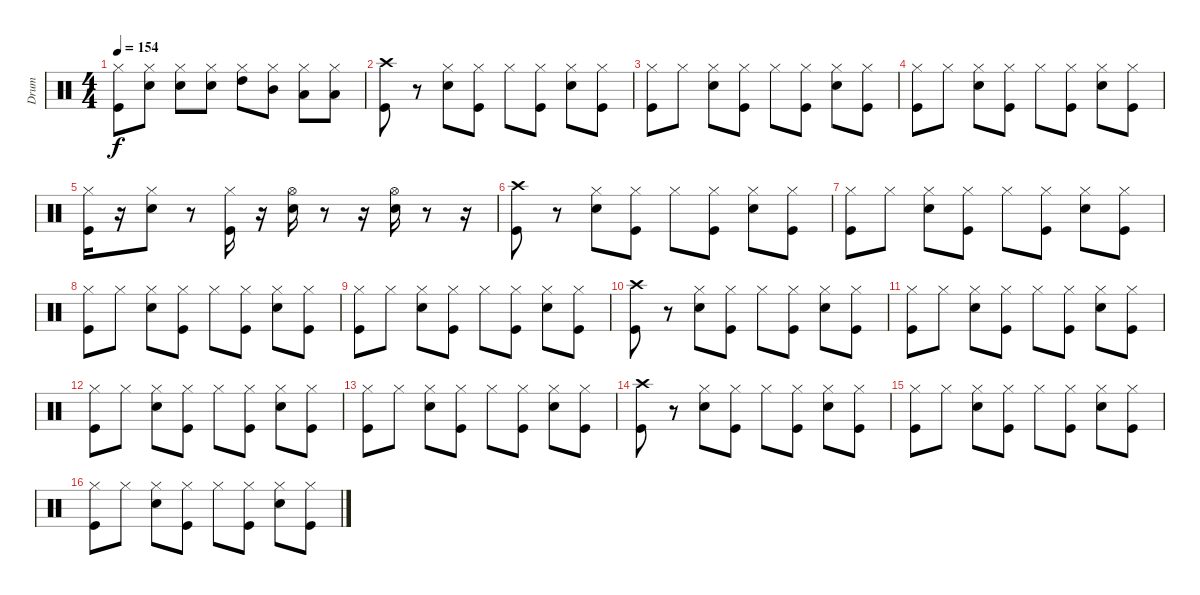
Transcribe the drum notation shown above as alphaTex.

\track ("Drum" "Drum") {instrument percussion}
\staff {score}
\articulation defaults
\ts (4 4)
\tempo 154
\clef neutral
\ks c
("Kick (hit)" "Hi-Hat (closed)").8{dy f} ("Snare (hit) 2" "Hi-Hat (closed)").8 ("Snare (hit) 2" "Hi-Hat (closed)").8 ("Snare (hit) 2" "Hi-Hat (closed)").8 ("Hi-Hat (closed)" "High Tom (hit)").8 ("Hi-Hat (closed)" "Mid Tom (hit)").8 ("Hi-Hat (closed)" "Low Tom (hit)").8 ("Hi-Hat (closed)" "Low Floor Tom (hit)").8 |
("Kick (hit)" "Crash high (hit)").8 r.8 ("Snare (hit) 2" "Hi-Hat (closed)").8 ("Kick (hit)" "Hi-Hat (closed)").8 "Hi-Hat (closed)".8 ("Kick (hit)" "Hi-Hat (closed)").8 ("Snare (hit) 2" "Hi-Hat (closed)").8 ("Kick (hit)" "Hi-Hat (closed)").8 |
("Kick (hit)" "Hi-Hat (closed)").8 "Hi-Hat (closed)".8 ("Snare (hit) 2" "Hi-Hat (closed)").8 ("Kick (hit)" "Hi-Hat (closed)").8 "Hi-Hat (closed)".8 ("Kick (hit)" "Hi-Hat (closed)").8 ("Snare (hit) 2" "Hi-Hat (closed)").8 ("Kick (hit)" "Hi-Hat (closed)").8 |
("Kick (hit)" "Hi-Hat (closed)").8 "Hi-Hat (closed)".8 ("Snare (hit) 2" "Hi-Hat (closed)").8 ("Kick (hit)" "Hi-Hat (closed)").8 "Hi-Hat (closed)".8 ("Kick (hit)" "Hi-Hat (closed)").8 ("Snare (hit) 2" "Hi-Hat (closed)").8 ("Kick (hit)" "Hi-Hat (closed)").8 |
("Kick (hit)" "Hi-Hat (closed)").16 r.16 ("Snare (hit) 2" "Hi-Hat (closed)").8 r.8 ("Kick (hit)" "Hi-Hat (closed)").16 r.16 ("Snare (hit) 2" "Hi-Hat (open)").16 r.8 r.16 ("Snare (hit) 2" "Hi-Hat (open)").16 r.8 r.16 |
("Kick (hit)" "Crash high (hit)").8 r.8 ("Snare (hit) 2" "Hi-Hat (closed)").8 ("Kick (hit)" "Hi-Hat (closed)").8 "Hi-Hat (closed)".8 ("Kick (hit)" "Hi-Hat (closed)").8 ("Snare (hit) 2" "Hi-Hat (closed)").8 ("Kick (hit)" "Hi-Hat (closed)").8 |
("Kick (hit)" "Hi-Hat (closed)").8 "Hi-Hat (closed)".8 ("Snare (hit) 2" "Hi-Hat (closed)").8 ("Kick (hit)" "Hi-Hat (closed)").8 "Hi-Hat (closed)".8 ("Kick (hit)" "Hi-Hat (closed)").8 ("Snare (hit) 2" "Hi-Hat (closed)").8 ("Kick (hit)" "Hi-Hat (closed)").8 |
("Kick (hit)" "Hi-Hat (closed)").8 "Hi-Hat (closed)".8 ("Snare (hit) 2" "Hi-Hat (closed)").8 ("Kick (hit)" "Hi-Hat (closed)").8 "Hi-Hat (closed)".8 ("Kick (hit)" "Hi-Hat (closed)").8 ("Snare (hit) 2" "Hi-Hat (closed)").8 ("Kick (hit)" "Hi-Hat (closed)").8 |
("Kick (hit)" "Hi-Hat (closed)").8 "Hi-Hat (closed)".8 ("Snare (hit) 2" "Hi-Hat (closed)").8 ("Kick (hit)" "Hi-Hat (closed)").8 "Hi-Hat (closed)".8 ("Kick (hit)" "Hi-Hat (closed)").8 ("Snare (hit) 2" "Hi-Hat (closed)").8 ("Kick (hit)" "Hi-Hat (closed)").8 |
("Kick (hit)" "Crash high (hit)").8 r.8 ("Snare (hit) 2" "Hi-Hat (closed)").8 ("Kick (hit)" "Hi-Hat (closed)").8 "Hi-Hat (closed)".8 ("Kick (hit)" "Hi-Hat (closed)").8 ("Snare (hit) 2" "Hi-Hat (closed)").8 ("Kick (hit)" "Hi-Hat (closed)").8 |
("Kick (hit)" "Hi-Hat (closed)").8 "Hi-Hat (closed)".8 ("Snare (hit) 2" "Hi-Hat (closed)").8 ("Kick (hit)" "Hi-Hat (closed)").8 "Hi-Hat (closed)".8 ("Kick (hit)" "Hi-Hat (closed)").8 ("Snare (hit) 2" "Hi-Hat (closed)").8 ("Kick (hit)" "Hi-Hat (closed)").8 |
("Kick (hit)" "Hi-Hat (closed)").8 "Hi-Hat (closed)".8 ("Snare (hit) 2" "Hi-Hat (closed)").8 ("Kick (hit)" "Hi-Hat (closed)").8 "Hi-Hat (closed)".8 ("Kick (hit)" "Hi-Hat (closed)").8 ("Snare (hit) 2" "Hi-Hat (closed)").8 ("Kick (hit)" "Hi-Hat (closed)").8 |
("Kick (hit)" "Hi-Hat (closed)").8 "Hi-Hat (closed)".8 ("Snare (hit) 2" "Hi-Hat (closed)").8 ("Kick (hit)" "Hi-Hat (closed)").8 "Hi-Hat (closed)".8 ("Kick (hit)" "Hi-Hat (closed)").8 ("Snare (hit) 2" "Hi-Hat (closed)").8 ("Kick (hit)" "Hi-Hat (closed)").8 |
("Kick (hit)" "Crash high (hit)").8 r.8 ("Snare (hit) 2" "Hi-Hat (closed)").8 ("Kick (hit)" "Hi-Hat (closed)").8 "Hi-Hat (closed)".8 ("Kick (hit)" "Hi-Hat (closed)").8 ("Snare (hit) 2" "Hi-Hat (closed)").8 ("Kick (hit)" "Hi-Hat (closed)").8 |
("Kick (hit)" "Hi-Hat (closed)").8 "Hi-Hat (closed)".8 ("Snare (hit) 2" "Hi-Hat (closed)").8 ("Kick (hit)" "Hi-Hat (closed)").8 "Hi-Hat (closed)".8 ("Kick (hit)" "Hi-Hat (closed)").8 ("Snare (hit) 2" "Hi-Hat (closed)").8 ("Kick (hit)" "Hi-Hat (closed)").8 |
("Kick (hit)" "Hi-Hat (closed)").8 "Hi-Hat (closed)".8 ("Snare (hit) 2" "Hi-Hat (closed)").8 ("Kick (hit)" "Hi-Hat (closed)").8 "Hi-Hat (closed)".8 ("Kick (hit)" "Hi-Hat (closed)").8 ("Snare (hit) 2" "Hi-Hat (closed)").8 ("Kick (hit)" "Hi-Hat (closed)").8
